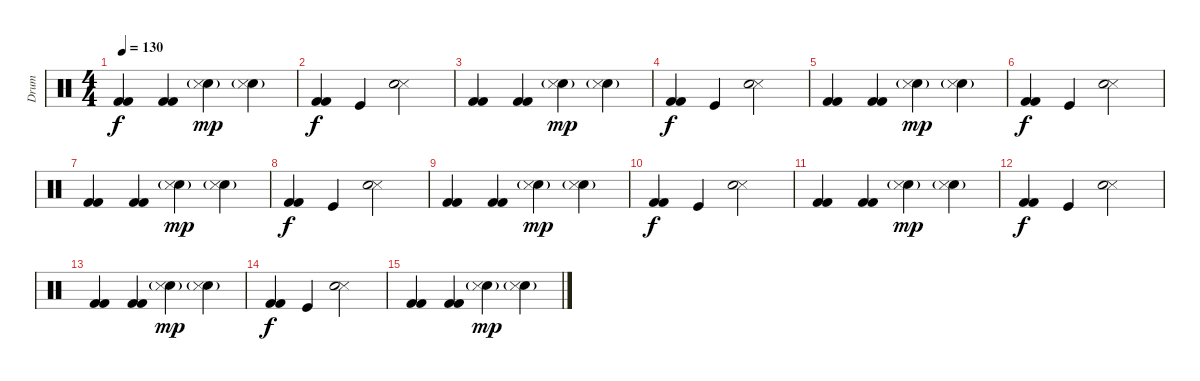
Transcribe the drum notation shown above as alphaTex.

\track ("Drum" "Drum") {instrument percussion}
\staff {score}
\articulation defaults
\ts (4 4)
\tempo 130
\clef neutral
\ks c
("Kick (hit) 2" "Kick (hit) 2").4{dy f} ("Kick (hit) 2" "Kick (hit) 2").4 ("Snare (hit) 2" "Snare (side stick) 3"{g}).4{dy mp} ("Snare (hit) 2"{g} "Snare (side stick) 3").4 |
("Kick (hit) 2" "Kick (hit) 2").4{dy f} "Kick (hit)".4 ("Snare (side stick) 3" "Snare (hit) 2").2 |
("Kick (hit) 2" "Kick (hit) 2").4 ("Kick (hit) 2" "Kick (hit) 2").4 ("Snare (hit) 2" "Snare (side stick) 3"{g}).4{dy mp} ("Snare (hit) 2"{g} "Snare (side stick) 3").4 |
("Kick (hit) 2" "Kick (hit) 2").4{dy f} "Kick (hit)".4 ("Snare (side stick) 3" "Snare (hit) 2").2 |
("Kick (hit) 2" "Kick (hit) 2").4 ("Kick (hit) 2" "Kick (hit) 2").4 ("Snare (hit) 2" "Snare (side stick) 3"{g}).4{dy mp} ("Snare (hit) 2"{g} "Snare (side stick) 3").4 |
("Kick (hit) 2" "Kick (hit) 2").4{dy f} "Kick (hit)".4 ("Snare (side stick) 3" "Snare (hit) 2").2 |
("Kick (hit) 2" "Kick (hit) 2").4 ("Kick (hit) 2" "Kick (hit) 2").4 ("Snare (hit) 2" "Snare (side stick) 3"{g}).4{dy mp} ("Snare (hit) 2"{g} "Snare (side stick) 3").4 |
("Kick (hit) 2" "Kick (hit) 2").4{dy f} "Kick (hit)".4 ("Snare (side stick) 3" "Snare (hit) 2").2 |
("Kick (hit) 2" "Kick (hit) 2").4 ("Kick (hit) 2" "Kick (hit) 2").4 ("Snare (hit) 2" "Snare (side stick) 3"{g}).4{dy mp} ("Snare (hit) 2"{g} "Snare (side stick) 3").4 |
("Kick (hit) 2" "Kick (hit) 2").4{dy f} "Kick (hit)".4 ("Snare (side stick) 3" "Snare (hit) 2").2 |
("Kick (hit) 2" "Kick (hit) 2").4 ("Kick (hit) 2" "Kick (hit) 2").4 ("Snare (hit) 2" "Snare (side stick) 3"{g}).4{dy mp} ("Snare (hit) 2"{g} "Snare (side stick) 3").4 |
("Kick (hit) 2" "Kick (hit) 2").4{dy f} "Kick (hit)".4 ("Snare (side stick) 3" "Snare (hit) 2").2 |
("Kick (hit) 2" "Kick (hit) 2").4 ("Kick (hit) 2" "Kick (hit) 2").4 ("Snare (hit) 2" "Snare (side stick) 3"{g}).4{dy mp} ("Snare (hit) 2"{g} "Snare (side stick) 3").4 |
("Kick (hit) 2" "Kick (hit) 2").4{dy f} "Kick (hit)".4 ("Snare (side stick) 3" "Snare (hit) 2").2 |
("Kick (hit) 2" "Kick (hit) 2").4 ("Kick (hit) 2" "Kick (hit) 2").4 ("Snare (hit) 2" "Snare (side stick) 3"{g}).4{dy mp} ("Snare (hit) 2"{g} "Snare (side stick) 3").4
